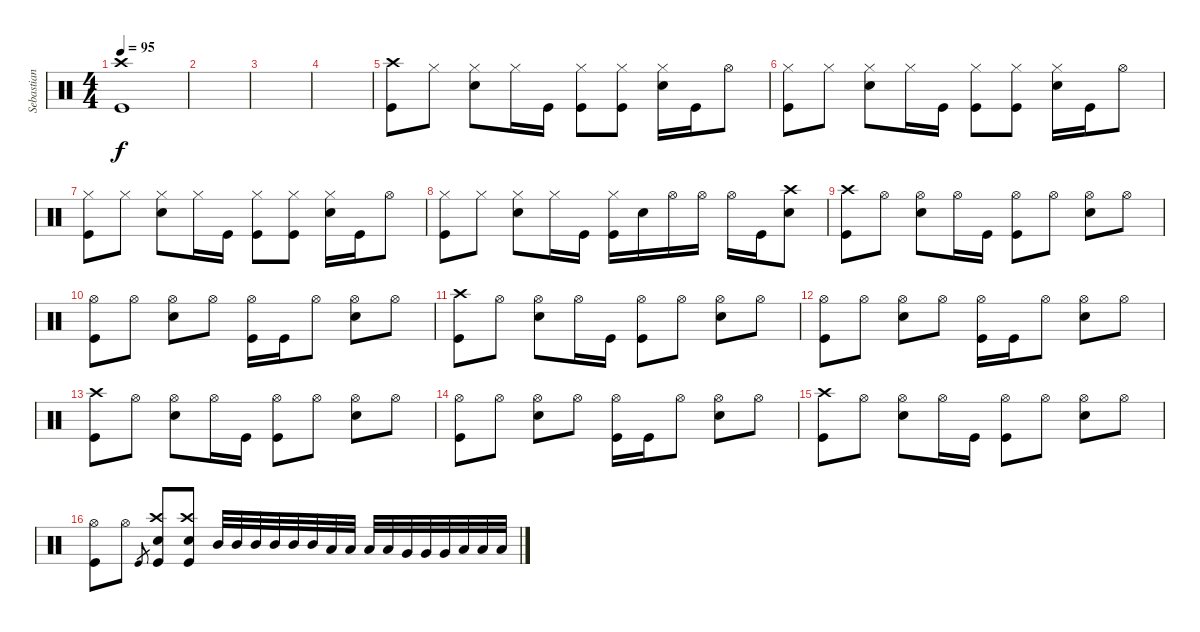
\track ("Sebastian" "Sebastian") {instrument percussion}
\staff {score}
\articulation defaults
\ts (4 4)
\tempo 95
\clef neutral
\ks c
("Kick (hit)" "Crash high (hit)").1{dy f} |
|
|
|
("Kick (hit)" "Crash high (hit)").8 "Hi-Hat (closed)".8 ("Snare (hit) 2" "Hi-Hat (closed)").8 "Hi-Hat (closed)".16 "Kick (hit)".16 ("Kick (hit)" "Hi-Hat (closed)").8 ("Kick (hit)" "Hi-Hat (closed)").8 ("Snare (hit) 2" "Hi-Hat (closed)").16 "Kick (hit)".16 "Hi-Hat (open)".8 |
("Kick (hit)" "Hi-Hat (closed)").8 "Hi-Hat (closed)".8 ("Snare (hit) 2" "Hi-Hat (closed)").8 "Hi-Hat (closed)".16 "Kick (hit)".16 ("Kick (hit)" "Hi-Hat (closed)").8 ("Kick (hit)" "Hi-Hat (closed)").8 ("Snare (hit) 2" "Hi-Hat (closed)").16 "Kick (hit)".16 "Hi-Hat (open)".8 |
("Kick (hit)" "Hi-Hat (closed)").8 "Hi-Hat (closed)".8 ("Snare (hit) 2" "Hi-Hat (closed)").8 "Hi-Hat (closed)".16 "Kick (hit)".16 ("Kick (hit)" "Hi-Hat (closed)").8 ("Kick (hit)" "Hi-Hat (closed)").8 ("Snare (hit) 2" "Hi-Hat (closed)").16 "Kick (hit)".16 "Hi-Hat (open)".8 |
("Kick (hit)" "Hi-Hat (closed)").8 "Hi-Hat (closed)".8 ("Snare (hit) 2" "Hi-Hat (closed)").8 "Hi-Hat (closed)".16 "Kick (hit)".16 ("Kick (hit)" "Hi-Hat (closed)").16 "Snare (hit) 2".16 "Hi-Hat (open)".16 "Hi-Hat (open)".16 "Hi-Hat (open)".16 "Kick (hit)".16 ("Snare (hit) 2" "Crash high (hit)").8 |
("Kick (hit)" "Crash high (hit)").8 "Hi-Hat (open)".8 ("Snare (hit) 2" "Hi-Hat (open)").8 "Hi-Hat (open)".16 "Kick (hit)".16 ("Kick (hit)" "Hi-Hat (open)").8 "Hi-Hat (open)".8 ("Snare (hit) 2" "Hi-Hat (open)").8 "Hi-Hat (open)".8 |
("Kick (hit)" "Hi-Hat (open)").8 "Hi-Hat (open)".8 ("Snare (hit) 2" "Hi-Hat (open)").8 "Hi-Hat (open)".8 ("Kick (hit)" "Hi-Hat (open)").16 "Kick (hit)".16 "Hi-Hat (open)".8 ("Snare (hit) 2" "Hi-Hat (open)").8 "Hi-Hat (open)".8 |
("Kick (hit)" "Crash high (hit)").8 "Hi-Hat (open)".8 ("Snare (hit) 2" "Hi-Hat (open)").8 "Hi-Hat (open)".16 "Kick (hit)".16 ("Kick (hit)" "Hi-Hat (open)").8 "Hi-Hat (open)".8 ("Snare (hit) 2" "Hi-Hat (open)").8 "Hi-Hat (open)".8 |
("Kick (hit)" "Hi-Hat (open)").8 "Hi-Hat (open)".8 ("Snare (hit) 2" "Hi-Hat (open)").8 "Hi-Hat (open)".8 ("Kick (hit)" "Hi-Hat (open)").16 "Kick (hit)".16 "Hi-Hat (open)".8 ("Snare (hit) 2" "Hi-Hat (open)").8 "Hi-Hat (open)".8 |
("Kick (hit)" "Crash high (hit)").8 "Hi-Hat (open)".8 ("Snare (hit) 2" "Hi-Hat (open)").8 "Hi-Hat (open)".16 "Kick (hit)".16 ("Kick (hit)" "Hi-Hat (open)").8 "Hi-Hat (open)".8 ("Snare (hit) 2" "Hi-Hat (open)").8 "Hi-Hat (open)".8 |
("Kick (hit)" "Hi-Hat (open)").8 "Hi-Hat (open)".8 ("Snare (hit) 2" "Hi-Hat (open)").8 "Hi-Hat (open)".8 ("Kick (hit)" "Hi-Hat (open)").16 "Kick (hit)".16 "Hi-Hat (open)".8 ("Snare (hit) 2" "Hi-Hat (open)").8 "Hi-Hat (open)".8 |
("Kick (hit)" "Crash high (hit)").8 "Hi-Hat (open)".8 ("Snare (hit) 2" "Hi-Hat (open)").8 "Hi-Hat (open)".16 "Kick (hit)".16 ("Kick (hit)" "Hi-Hat (open)").8 "Hi-Hat (open)".8 ("Snare (hit) 2" "Hi-Hat (open)").8 "Hi-Hat (open)".8 |
("Kick (hit)" "Hi-Hat (open)").8 "Hi-Hat (open)".8 "Kick (hit)".8{gr} ("Kick (hit)" "Snare (hit) 2" "Crash high (hit)").8 ("Kick (hit)" "Snare (hit) 2" "Crash high (hit)").8 "Mid Tom (hit)".32 "Mid Tom (hit)".32 "Mid Tom (hit)".32 "Mid Tom (hit)".32 "Mid Tom (hit)".32 "Mid Tom (hit)".32 "Low Tom (hit)".32 "Low Tom (hit)".32 "Low Tom (hit)".32 "Low Tom (hit)".32 "Very Low Tom (hit)".32 "Very Low Tom (hit)".32 "Very Low Tom (hit)".32 "Low Floor Tom (hit)".32 "Low Floor Tom (hit)".32 "Low Floor Tom (hit)".32
